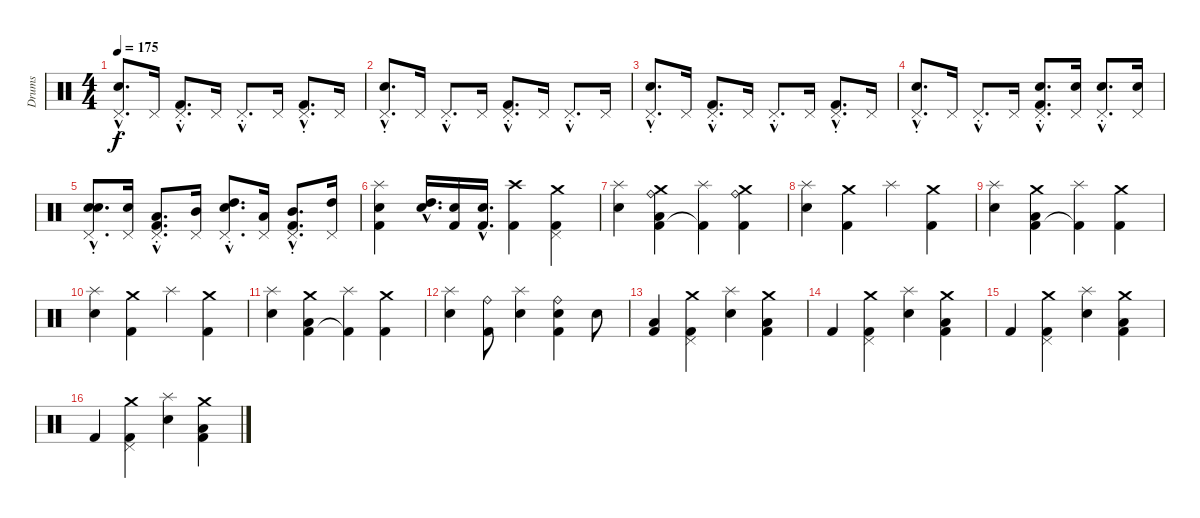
\track ("Drums" "Drums") {instrument percussion}
\staff {score}
\articulation defaults
\ts (4 4)
\tempo 175
\clef neutral
\ks c
("Electric Snare (hit)"{hac} "Pedal Hi-Hat (hit)"{hac st}).8{d dy f} "Pedal Hi-Hat (hit)".16 ("Pedal Hi-Hat (hit)"{hac st} "Kick (hit) 2"{hac}).8{d} "Pedal Hi-Hat (hit)".16 "Pedal Hi-Hat (hit)"{hac st}.8{d} "Pedal Hi-Hat (hit)".16 ("Kick (hit) 2"{hac} "Pedal Hi-Hat (hit)"{hac st}).8{d} "Pedal Hi-Hat (hit)".16 |
("Electric Snare (hit)"{hac} "Pedal Hi-Hat (hit)"{hac st}).8{d} "Pedal Hi-Hat (hit)".16 "Pedal Hi-Hat (hit)"{hac st}.8{d} "Pedal Hi-Hat (hit)".16 ("Pedal Hi-Hat (hit)"{hac st} "Kick (hit) 2"{hac}).8{d} "Pedal Hi-Hat (hit)".16 "Pedal Hi-Hat (hit)"{hac st}.8{d} "Pedal Hi-Hat (hit)".16 |
("Electric Snare (hit)"{hac} "Pedal Hi-Hat (hit)"{hac st}).8{d} "Pedal Hi-Hat (hit)".16 ("Pedal Hi-Hat (hit)"{hac st} "Kick (hit) 2"{hac}).8{d} "Pedal Hi-Hat (hit)".16 "Pedal Hi-Hat (hit)"{hac st}.8{d} "Pedal Hi-Hat (hit)".16 ("Kick (hit) 2"{hac} "Pedal Hi-Hat (hit)"{hac st}).8{d} "Pedal Hi-Hat (hit)".16 |
("Electric Snare (hit)"{hac} "Pedal Hi-Hat (hit)"{hac st}).8{d} "Pedal Hi-Hat (hit)".16 "Pedal Hi-Hat (hit)"{hac st}.8{d} "Pedal Hi-Hat (hit)".16 ("Pedal Hi-Hat (hit)"{hac st} "Electric Snare (hit)"{hac} "Kick (hit) 2"{hac}).8{d} ("Snare (hit) 2" "Pedal Hi-Hat (hit)").16 ("Pedal Hi-Hat (hit)"{hac st} "Electric Snare (hit)"{hac}).8{d} ("Electric Snare (hit)" "Pedal Hi-Hat (hit)").16 |
("Electric Snare (hit)"{hac} "Pedal Hi-Hat (hit)"{hac st} "Snare (hit) 2"{hac}).8{d} ("Electric Snare (hit)" "Pedal Hi-Hat (hit)").16 ("Pedal Hi-Hat (hit)"{hac st} "Kick (hit) 2"{hac} "Low Tom (hit)"{hac}).8{d} ("Pedal Hi-Hat (hit)" "Mid Tom (hit)").16 ("Pedal Hi-Hat (hit)"{hac st} "Electric Snare (hit)"{hac} "High Tom (hit)"{hac}).8{d} ("Pedal Hi-Hat (hit)" "Low Tom (hit)").16 ("Kick (hit) 2"{hac} "Pedal Hi-Hat (hit)"{hac st} "Mid Tom (hit)"{hac}).8{d} ("Pedal Hi-Hat (hit)" "High Tom (hit)").16 |
("Electric Snare (hit)" "Splash (hit)" "Kick (hit) 2").4 ("High Tom (hit)"{hac} "Electric Snare (hit)"{hac}).16{d} ("Electric Snare (hit)" "Kick (hit) 2").16 ("Electric Snare (hit)"{hac} "Kick (hit) 2"{hac}).16{d} ("Kick (hit) 2" "Crash high (hit)").4 ("Kick (hit) 2" "Pedal Hi-Hat (hit)" "Crash medium (hit)").4 |
("Electric Snare (hit)" "Splash (hit)").4 ("Kick (hit) 2" "Low Tom (hit)" "Ride (bell)" "Crash medium (hit)").4 ("Kick (hit) 2"{t} "Splash (hit)").4 ("Kick (hit) 2" "Ride (bell)" "Crash medium (hit)").4 |
("Electric Snare (hit)" "Splash (hit)").4 ("Kick (hit) 2" "Crash medium (hit)").4 "Splash (hit)".4 ("Kick (hit) 2" "Crash medium (hit)").4 |
("Electric Snare (hit)" "Splash (hit)").4 ("Kick (hit) 2" "Low Tom (hit)" "Crash medium (hit)").4 ("Kick (hit) 2"{t} "Splash (hit)").4 ("Kick (hit) 2" "Crash medium (hit)").4 |
("Electric Snare (hit)" "Splash (hit)").4 ("Kick (hit) 2" "Crash medium (hit)").4 "Splash (hit)".4 ("Kick (hit) 2" "Crash medium (hit)").4 |
("Electric Snare (hit)" "Splash (hit)").4 ("Kick (hit) 2" "Low Tom (hit)" "Crash medium (hit)").4 ("Kick (hit) 2"{t} "Splash (hit)").4 ("Kick (hit) 2" "Crash medium (hit)").4 |
("Electric Snare (hit)" "Splash (hit)").4 ("Kick (hit) 2" "Ride (bell)").8 ("Electric Snare (hit)" "Splash (hit)").4 ("Kick (hit) 2" "Electric Snare (hit)" "Ride (bell)").4 "Electric Snare (hit)".8 |
("Kick (hit) 2" "Low Tom (hit)").4 ("Kick (hit) 2" "Pedal Hi-Hat (hit)" "Crash medium (hit)").4 ("Electric Snare (hit)" "Splash (hit)").4 ("Kick (hit) 2" "Low Tom (hit)" "Crash medium (hit)").4 |
"Kick (hit) 2".4 ("Kick (hit) 2" "Pedal Hi-Hat (hit)" "Crash medium (hit)").4 ("Electric Snare (hit)" "Splash (hit)").4 ("Kick (hit) 2" "Low Tom (hit)" "Crash medium (hit)").4 |
"Kick (hit) 2".4 ("Kick (hit) 2" "Pedal Hi-Hat (hit)" "Crash medium (hit)").4 ("Electric Snare (hit)" "Splash (hit)").4 ("Kick (hit) 2" "Low Tom (hit)" "Crash medium (hit)").4 |
"Kick (hit) 2".4 ("Kick (hit) 2" "Pedal Hi-Hat (hit)" "Crash medium (hit)").4 ("Electric Snare (hit)" "Splash (hit)").4 ("Kick (hit) 2" "Low Tom (hit)" "Crash medium (hit)").4
